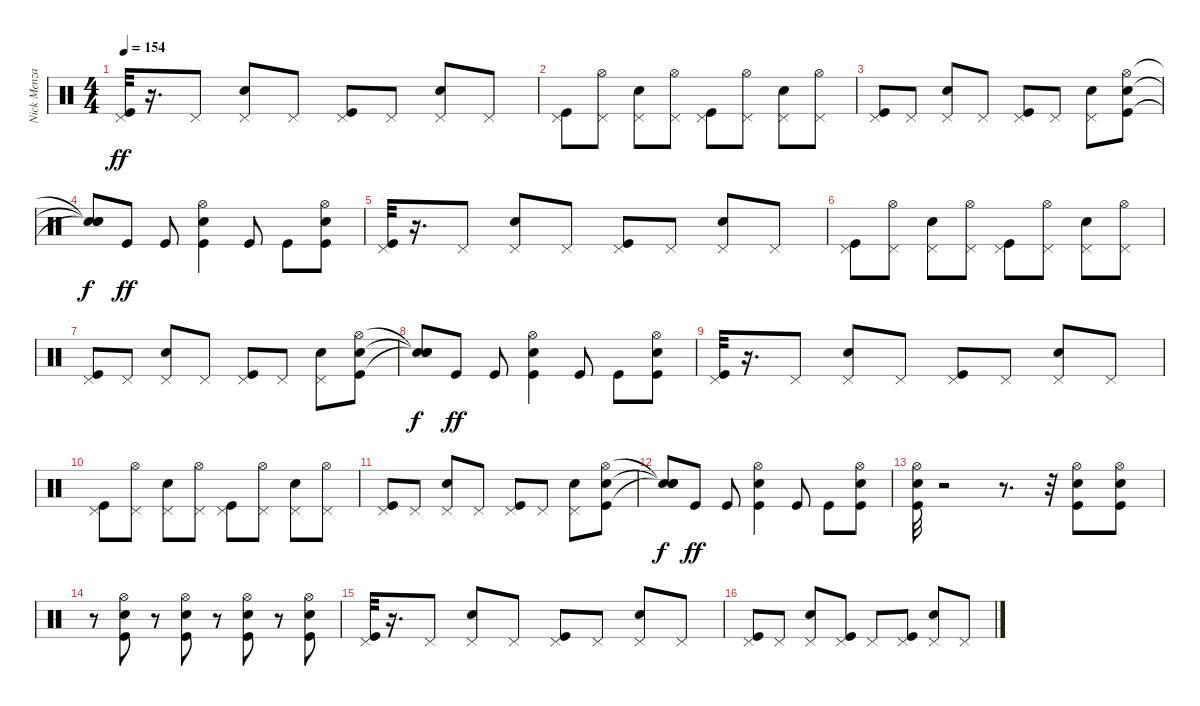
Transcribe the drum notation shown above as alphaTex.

\track ("Nick Menza" "Nick Menza") {instrument percussion}
\staff {score}
\articulation defaults
\ts (4 4)
\tempo 154
\clef neutral
\ks c
("Kick (hit)" "Pedal Hi-Hat (hit)").32{dy ff} r.16{d} "Pedal Hi-Hat (hit)".8 ("Electric Snare (hit)" "Pedal Hi-Hat (hit)").8 "Pedal Hi-Hat (hit)".8 ("Kick (hit)" "Pedal Hi-Hat (hit)").8 "Pedal Hi-Hat (hit)".8 ("Electric Snare (hit)" "Pedal Hi-Hat (hit)").8 "Pedal Hi-Hat (hit)".8 |
("Pedal Hi-Hat (hit)" "Kick (hit)").8 ("Hi-Hat (open)" "Pedal Hi-Hat (hit)").8 ("Pedal Hi-Hat (hit)" "Electric Snare (hit)").8 ("Pedal Hi-Hat (hit)" "Hi-Hat (open)").8 ("Kick (hit)" "Pedal Hi-Hat (hit)").8 ("Pedal Hi-Hat (hit)" "Hi-Hat (open)").8 ("Electric Snare (hit)" "Pedal Hi-Hat (hit)").8 ("Pedal Hi-Hat (hit)" "Hi-Hat (open)").8 |
("Pedal Hi-Hat (hit)" "Kick (hit)").8 "Pedal Hi-Hat (hit)".8 ("Electric Snare (hit)" "Pedal Hi-Hat (hit)").8 "Pedal Hi-Hat (hit)".8 ("Kick (hit)" "Pedal Hi-Hat (hit)").8 "Pedal Hi-Hat (hit)".8 ("Pedal Hi-Hat (hit)" "Electric Snare (hit)").8 ("Kick (hit)" "Electric Snare (hit)" "Hi-Hat (open)").8 |
("Snare (hit)"{t} "Snare (hit)"{t} "Snare (hit)"{t}).8{dy f} "Kick (hit)".8{dy ff} "Kick (hit)".8 ("Hi-Hat (open)" "Kick (hit)" "Electric Snare (hit)").4 "Kick (hit)".8 "Kick (hit)".8 ("Kick (hit)" "Electric Snare (hit)" "Hi-Hat (open)").8 |
("Pedal Hi-Hat (hit)" "Kick (hit)").32 r.16{d} "Pedal Hi-Hat (hit)".8 ("Pedal Hi-Hat (hit)" "Electric Snare (hit)").8 "Pedal Hi-Hat (hit)".8 ("Kick (hit)" "Pedal Hi-Hat (hit)").8 "Pedal Hi-Hat (hit)".8 ("Electric Snare (hit)" "Pedal Hi-Hat (hit)").8 "Pedal Hi-Hat (hit)".8 |
("Pedal Hi-Hat (hit)" "Kick (hit)").8 ("Hi-Hat (open)" "Pedal Hi-Hat (hit)").8 ("Pedal Hi-Hat (hit)" "Electric Snare (hit)").8 ("Hi-Hat (open)" "Pedal Hi-Hat (hit)").8 ("Kick (hit)" "Pedal Hi-Hat (hit)").8 ("Pedal Hi-Hat (hit)" "Hi-Hat (open)").8 ("Electric Snare (hit)" "Pedal Hi-Hat (hit)").8 ("Pedal Hi-Hat (hit)" "Hi-Hat (open)").8 |
("Kick (hit)" "Pedal Hi-Hat (hit)").8 "Pedal Hi-Hat (hit)".8 ("Electric Snare (hit)" "Pedal Hi-Hat (hit)").8 "Pedal Hi-Hat (hit)".8 ("Kick (hit)" "Pedal Hi-Hat (hit)").8 "Pedal Hi-Hat (hit)".8 ("Pedal Hi-Hat (hit)" "Electric Snare (hit)").8 ("Kick (hit)" "Electric Snare (hit)" "Hi-Hat (open)").8 |
("Snare (hit)"{t} "Snare (hit)"{t} "Snare (hit)"{t}).8{dy f} "Kick (hit)".8{dy ff} "Kick (hit)".8 ("Hi-Hat (open)" "Kick (hit)" "Electric Snare (hit)").4 "Kick (hit)".8 "Kick (hit)".8 ("Kick (hit)" "Electric Snare (hit)" "Hi-Hat (open)").8 |
("Kick (hit)" "Pedal Hi-Hat (hit)").32 r.16{d} "Pedal Hi-Hat (hit)".8 ("Electric Snare (hit)" "Pedal Hi-Hat (hit)").8 "Pedal Hi-Hat (hit)".8 ("Kick (hit)" "Pedal Hi-Hat (hit)").8 "Pedal Hi-Hat (hit)".8 ("Electric Snare (hit)" "Pedal Hi-Hat (hit)").8 "Pedal Hi-Hat (hit)".8 |
("Pedal Hi-Hat (hit)" "Kick (hit)").8 ("Hi-Hat (open)" "Pedal Hi-Hat (hit)").8 ("Pedal Hi-Hat (hit)" "Electric Snare (hit)").8 ("Pedal Hi-Hat (hit)" "Hi-Hat (open)").8 ("Kick (hit)" "Pedal Hi-Hat (hit)").8 ("Pedal Hi-Hat (hit)" "Hi-Hat (open)").8 ("Electric Snare (hit)" "Pedal Hi-Hat (hit)").8 ("Pedal Hi-Hat (hit)" "Hi-Hat (open)").8 |
("Pedal Hi-Hat (hit)" "Kick (hit)").8 "Pedal Hi-Hat (hit)".8 ("Electric Snare (hit)" "Pedal Hi-Hat (hit)").8 "Pedal Hi-Hat (hit)".8 ("Kick (hit)" "Pedal Hi-Hat (hit)").8 "Pedal Hi-Hat (hit)".8 ("Pedal Hi-Hat (hit)" "Electric Snare (hit)").8 ("Kick (hit)" "Electric Snare (hit)" "Hi-Hat (open)").8 |
("Snare (hit)"{t} "Snare (hit)"{t} "Snare (hit)"{t}).8{dy f} "Kick (hit)".8{dy ff} "Kick (hit)".8 ("Hi-Hat (open)" "Kick (hit)" "Electric Snare (hit)").4 "Kick (hit)".8 "Kick (hit)".8 ("Kick (hit)" "Electric Snare (hit)" "Hi-Hat (open)").8 |
("Kick (hit)" "Electric Snare (hit)" "Hi-Hat (open)").32 r.2 r.8{d} r.32 ("Kick (hit)" "Electric Snare (hit)" "Hi-Hat (open)").8 ("Kick (hit)" "Electric Snare (hit)" "Hi-Hat (open)").8 |
r.8 ("Kick (hit)" "Electric Snare (hit)" "Hi-Hat (open)").8 r.8 ("Kick (hit)" "Electric Snare (hit)" "Hi-Hat (open)").8 r.8 ("Kick (hit)" "Electric Snare (hit)" "Hi-Hat (open)").8 r.8 ("Kick (hit)" "Electric Snare (hit)" "Hi-Hat (open)").8 |
("Kick (hit)" "Pedal Hi-Hat (hit)").32 r.16{d} "Pedal Hi-Hat (hit)".8 ("Electric Snare (hit)" "Pedal Hi-Hat (hit)").8 "Pedal Hi-Hat (hit)".8 ("Kick (hit)" "Pedal Hi-Hat (hit)").8 "Pedal Hi-Hat (hit)".8 ("Electric Snare (hit)" "Pedal Hi-Hat (hit)").8 "Pedal Hi-Hat (hit)".8 |
("Kick (hit)" "Pedal Hi-Hat (hit)").8 "Pedal Hi-Hat (hit)".8 ("Pedal Hi-Hat (hit)" "Electric Snare (hit)").8 ("Kick (hit)" "Pedal Hi-Hat (hit)").8 "Pedal Hi-Hat (hit)".8 ("Kick (hit)" "Pedal Hi-Hat (hit)").8 ("Electric Snare (hit)" "Pedal Hi-Hat (hit)").8 "Pedal Hi-Hat (hit)".8
